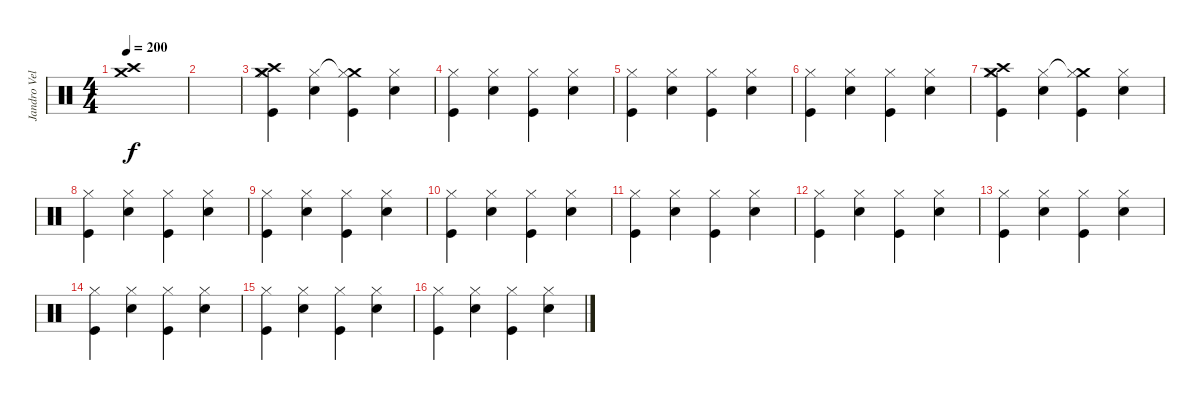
\track ("Jandro Velázquez" "Jandro Vel") {instrument percussion}
\staff {score}
\articulation defaults
\ts (4 4)
\tempo 200
\clef neutral
\ks c
("Crash high (hit)" "Crash medium (hit)").1{dy f} |
|
("Crash high (hit)" "Crash medium (hit)" "Hi-Hat (closed)" "Kick (hit)").4 ("Hi-Hat (closed)" "Snare (hit) 2").4 ("Crash medium (hit)"{t} "Hi-Hat (closed)" "Kick (hit)").4 ("Hi-Hat (closed)" "Snare (hit) 2").4 |
("Hi-Hat (closed)" "Kick (hit)").4 ("Hi-Hat (closed)" "Snare (hit) 2").4 ("Hi-Hat (closed)" "Kick (hit)").4 ("Hi-Hat (closed)" "Snare (hit) 2").4 |
("Hi-Hat (closed)" "Kick (hit)").4 ("Hi-Hat (closed)" "Snare (hit) 2").4 ("Hi-Hat (closed)" "Kick (hit)").4 ("Hi-Hat (closed)" "Snare (hit) 2").4 |
("Hi-Hat (closed)" "Kick (hit)").4 ("Hi-Hat (closed)" "Snare (hit) 2").4 ("Hi-Hat (closed)" "Kick (hit)").4 ("Hi-Hat (closed)" "Snare (hit) 2").4 |
("Crash high (hit)" "Crash medium (hit)" "Hi-Hat (closed)" "Kick (hit)").4 ("Hi-Hat (closed)" "Snare (hit) 2").4 ("Crash medium (hit)"{t} "Hi-Hat (closed)" "Kick (hit)").4 ("Hi-Hat (closed)" "Snare (hit) 2").4 |
("Hi-Hat (closed)" "Kick (hit)").4 ("Hi-Hat (closed)" "Snare (hit) 2").4 ("Hi-Hat (closed)" "Kick (hit)").4 ("Hi-Hat (closed)" "Snare (hit) 2").4 |
("Hi-Hat (closed)" "Kick (hit)").4 ("Hi-Hat (closed)" "Snare (hit) 2").4 ("Hi-Hat (closed)" "Kick (hit)").4 ("Hi-Hat (closed)" "Snare (hit) 2").4 |
("Hi-Hat (closed)" "Kick (hit)").4 ("Hi-Hat (closed)" "Snare (hit) 2").4 ("Hi-Hat (closed)" "Kick (hit)").4 ("Hi-Hat (closed)" "Snare (hit) 2").4 |
("Hi-Hat (closed)" "Kick (hit)").4 ("Hi-Hat (closed)" "Snare (hit) 2").4 ("Hi-Hat (closed)" "Kick (hit)").4 ("Hi-Hat (closed)" "Snare (hit) 2").4 |
("Hi-Hat (closed)" "Kick (hit)").4 ("Hi-Hat (closed)" "Snare (hit) 2").4 ("Hi-Hat (closed)" "Kick (hit)").4 ("Hi-Hat (closed)" "Snare (hit) 2").4 |
("Hi-Hat (closed)" "Kick (hit)").4 ("Hi-Hat (closed)" "Snare (hit) 2").4 ("Hi-Hat (closed)" "Kick (hit)").4 ("Hi-Hat (closed)" "Snare (hit) 2").4 |
("Hi-Hat (closed)" "Kick (hit)").4 ("Hi-Hat (closed)" "Snare (hit) 2").4 ("Hi-Hat (closed)" "Kick (hit)").4 ("Hi-Hat (closed)" "Snare (hit) 2").4 |
("Hi-Hat (closed)" "Kick (hit)").4 ("Hi-Hat (closed)" "Snare (hit) 2").4 ("Hi-Hat (closed)" "Kick (hit)").4 ("Hi-Hat (closed)" "Snare (hit) 2").4 |
("Hi-Hat (closed)" "Kick (hit)").4 ("Hi-Hat (closed)" "Snare (hit) 2").4 ("Hi-Hat (closed)" "Kick (hit)").4 ("Hi-Hat (closed)" "Snare (hit) 2").4
